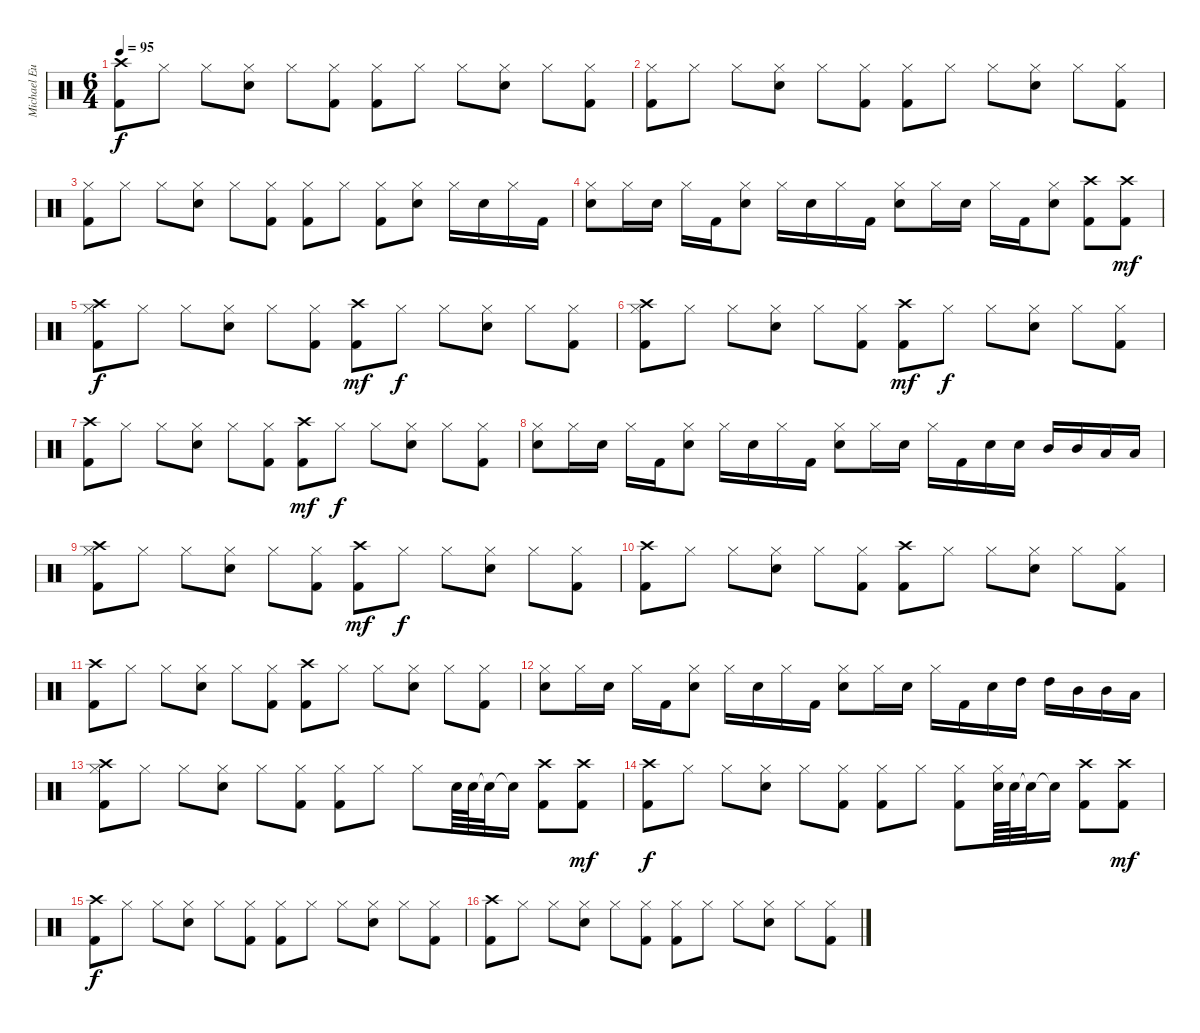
\track ("Michael Eurich" "Michael Eu") {instrument percussion}
\staff {score}
\articulation defaults
\ts (6 4)
\tempo 95
\clef neutral
\ks c
("Kick (hit) 2" "Crash high (hit)").8{dy f} "Hi-Hat (closed)".8 "Hi-Hat (closed)".8 ("Hi-Hat (closed)" "Snare (hit) 2").8 "Hi-Hat (closed)".8 ("Kick (hit) 2" "Hi-Hat (closed)").8 ("Kick (hit) 2" "Hi-Hat (closed)").8 "Hi-Hat (closed)".8 "Hi-Hat (closed)".8 ("Hi-Hat (closed)" "Snare (hit) 2").8 "Hi-Hat (closed)".8 ("Kick (hit) 2" "Hi-Hat (closed)").8 |
("Kick (hit) 2" "Hi-Hat (closed)").8 "Hi-Hat (closed)".8 "Hi-Hat (closed)".8 ("Hi-Hat (closed)" "Snare (hit) 2").8 "Hi-Hat (closed)".8 ("Kick (hit) 2" "Hi-Hat (closed)").8 ("Kick (hit) 2" "Hi-Hat (closed)").8 "Hi-Hat (closed)".8 "Hi-Hat (closed)".8 ("Hi-Hat (closed)" "Snare (hit) 2").8 "Hi-Hat (closed)".8 ("Kick (hit) 2" "Hi-Hat (closed)").8 |
("Kick (hit) 2" "Hi-Hat (closed)").8 "Hi-Hat (closed)".8 "Hi-Hat (closed)".8 ("Hi-Hat (closed)" "Snare (hit) 2").8 "Hi-Hat (closed)".8 ("Kick (hit) 2" "Hi-Hat (closed)").8 ("Kick (hit) 2" "Hi-Hat (closed)").8 "Hi-Hat (closed)".8 ("Kick (hit) 2" "Hi-Hat (closed)").8 ("Hi-Hat (closed)" "Snare (hit) 2").8 "Hi-Hat (closed)".16 "Snare (hit) 2".16 "Hi-Hat (closed)".16 "Kick (hit) 2".16 |
("Hi-Hat (closed)" "Snare (hit) 2").8 "Hi-Hat (closed)".16 "Snare (hit) 2".16 "Hi-Hat (closed)".16 "Kick (hit) 2".16 ("Hi-Hat (closed)" "Snare (hit) 2").8 "Hi-Hat (closed)".16 "Snare (hit) 2".16 "Hi-Hat (closed)".16 "Kick (hit) 2".16 ("Hi-Hat (closed)" "Snare (hit) 2").8 "Hi-Hat (closed)".16 "Snare (hit) 2".16 "Hi-Hat (closed)".16 "Kick (hit) 2".16 ("Hi-Hat (closed)" "Snare (hit) 2").8 ("Kick (hit) 2" "Crash high (hit)").8 ("Kick (hit) 2" "Crash high (hit)").8{dy mf} |
("Kick (hit) 2" "Hi-Hat (closed)" "Crash high (hit)").8{dy f} "Hi-Hat (closed)".8 "Hi-Hat (closed)".8 ("Hi-Hat (closed)" "Snare (hit) 2").8 "Hi-Hat (closed)".8 ("Kick (hit) 2" "Hi-Hat (closed)").8 ("Kick (hit) 2" "Crash high (hit)").8{dy mf} "Hi-Hat (closed)".8{dy f} "Hi-Hat (closed)".8 ("Hi-Hat (closed)" "Snare (hit) 2").8 "Hi-Hat (closed)".8 ("Kick (hit) 2" "Hi-Hat (closed)").8 |
("Kick (hit) 2" "Hi-Hat (closed)" "Crash high (hit)").8 "Hi-Hat (closed)".8 "Hi-Hat (closed)".8 ("Hi-Hat (closed)" "Snare (hit) 2").8 "Hi-Hat (closed)".8 ("Kick (hit) 2" "Hi-Hat (closed)").8 ("Kick (hit) 2" "Crash high (hit)").8{dy mf} "Hi-Hat (closed)".8{dy f} "Hi-Hat (closed)".8 ("Hi-Hat (closed)" "Snare (hit) 2").8 "Hi-Hat (closed)".8 ("Kick (hit) 2" "Hi-Hat (closed)").8 |
("Kick (hit) 2" "Crash high (hit)").8 "Hi-Hat (closed)".8 "Hi-Hat (closed)".8 ("Hi-Hat (closed)" "Snare (hit) 2").8 "Hi-Hat (closed)".8 ("Kick (hit) 2" "Hi-Hat (closed)").8 ("Kick (hit) 2" "Crash high (hit)").8{dy mf} "Hi-Hat (closed)".8{dy f} "Hi-Hat (closed)".8 ("Hi-Hat (closed)" "Snare (hit) 2").8 "Hi-Hat (closed)".8 ("Kick (hit) 2" "Hi-Hat (closed)").8 |
("Hi-Hat (closed)" "Snare (hit) 2").8 "Hi-Hat (closed)".16 "Snare (hit) 2".16 "Hi-Hat (closed)".16 "Kick (hit) 2".16 ("Hi-Hat (closed)" "Snare (hit) 2").8 "Hi-Hat (closed)".16 "Snare (hit) 2".16 "Hi-Hat (closed)".16 "Kick (hit) 2".16 ("Hi-Hat (closed)" "Snare (hit) 2").8 "Hi-Hat (closed)".16 "Snare (hit) 2".16 "Hi-Hat (closed)".16 "Kick (hit) 2".16 "Snare (hit) 2".16 "Snare (hit) 2".16 "Mid Tom (hit)".16 "Mid Tom (hit)".16 "Low Tom (hit)".16 "Low Tom (hit)".16 |
("Kick (hit) 2" "Hi-Hat (closed)" "Crash high (hit)").8 "Hi-Hat (closed)".8 "Hi-Hat (closed)".8 ("Hi-Hat (closed)" "Snare (hit) 2").8 "Hi-Hat (closed)".8 ("Kick (hit) 2" "Hi-Hat (closed)").8 ("Kick (hit) 2" "Crash high (hit)").8{dy mf} "Hi-Hat (closed)".8{dy f} "Hi-Hat (closed)".8 ("Hi-Hat (closed)" "Snare (hit) 2").8 "Hi-Hat (closed)".8 ("Kick (hit) 2" "Hi-Hat (closed)").8 |
("Kick (hit) 2" "Crash high (hit)").8 "Hi-Hat (closed)".8 "Hi-Hat (closed)".8 ("Hi-Hat (closed)" "Snare (hit) 2").8 "Hi-Hat (closed)".8 ("Kick (hit) 2" "Hi-Hat (closed)").8 ("Kick (hit) 2" "Crash high (hit)").8 "Hi-Hat (closed)".8 "Hi-Hat (closed)".8 ("Hi-Hat (closed)" "Snare (hit) 2").8 "Hi-Hat (closed)".8 ("Kick (hit) 2" "Hi-Hat (closed)").8 |
("Kick (hit) 2" "Crash high (hit)").8 "Hi-Hat (closed)".8 "Hi-Hat (closed)".8 ("Hi-Hat (closed)" "Snare (hit) 2").8 "Hi-Hat (closed)".8 ("Kick (hit) 2" "Hi-Hat (closed)").8 ("Kick (hit) 2" "Crash high (hit)").8 "Hi-Hat (closed)".8 "Hi-Hat (closed)".8 ("Hi-Hat (closed)" "Snare (hit) 2").8 "Hi-Hat (closed)".8 ("Kick (hit) 2" "Hi-Hat (closed)").8 |
("Hi-Hat (closed)" "Snare (hit) 2").8 "Hi-Hat (closed)".16 "Snare (hit) 2".16 "Hi-Hat (closed)".16 "Kick (hit) 2".16 ("Hi-Hat (closed)" "Snare (hit) 2").8 "Hi-Hat (closed)".16 "Snare (hit) 2".16 "Hi-Hat (closed)".16 "Kick (hit) 2".16 ("Hi-Hat (closed)" "Snare (hit) 2").8 "Hi-Hat (closed)".16 "Snare (hit) 2".16 "Hi-Hat (closed)".16 "Kick (hit) 2".16 "Snare (hit) 2".16 "High Tom (hit)".16 "High Tom (hit)".16 "Mid Tom (hit)".16 "Mid Tom (hit)".16 "Low Tom (hit)".16 |
("Kick (hit) 2" "Hi-Hat (closed)" "Crash high (hit)").8 "Hi-Hat (closed)".8 "Hi-Hat (closed)".8 ("Hi-Hat (closed)" "Snare (hit) 2").8 "Hi-Hat (closed)".8 ("Kick (hit) 2" "Hi-Hat (closed)").8 ("Kick (hit) 2" "Hi-Hat (closed)").8 "Hi-Hat (closed)".8 "Hi-Hat (closed)".8 "Snare (hit) 2".64 "Snare (hit) 2".64 "Snare (hit)"{t}.32 "Snare (hit)"{t}.16 ("Kick (hit) 2" "Crash high (hit)").8 ("Kick (hit) 2" "Crash high (hit)").8{dy mf} |
("Kick (hit) 2" "Crash high (hit)").8{dy f} "Hi-Hat (closed)".8 "Hi-Hat (closed)".8 ("Hi-Hat (closed)" "Snare (hit) 2").8 "Hi-Hat (closed)".8 ("Kick (hit) 2" "Hi-Hat (closed)").8 ("Kick (hit) 2" "Hi-Hat (closed)").8 "Hi-Hat (closed)".8 ("Kick (hit) 2" "Hi-Hat (closed)").8 ("Hi-Hat (closed)" "Snare (hit) 2").64 "Snare (hit) 2".64 "Snare (hit)"{t}.32 "Snare (hit)"{t}.16 ("Kick (hit) 2" "Crash high (hit)").8 ("Kick (hit) 2" "Crash high (hit)").8{dy mf} |
("Kick (hit) 2" "Crash high (hit)").8{dy f} "Hi-Hat (closed)".8 "Hi-Hat (closed)".8 ("Hi-Hat (closed)" "Snare (hit) 2").8 "Hi-Hat (closed)".8 ("Kick (hit) 2" "Hi-Hat (closed)").8 ("Kick (hit) 2" "Hi-Hat (closed)").8 "Hi-Hat (closed)".8 "Hi-Hat (closed)".8 ("Hi-Hat (closed)" "Snare (hit) 2").8 "Hi-Hat (closed)".8 ("Kick (hit) 2" "Hi-Hat (closed)").8 |
("Kick (hit) 2" "Crash high (hit)").8 "Hi-Hat (closed)".8 "Hi-Hat (closed)".8 ("Hi-Hat (closed)" "Snare (hit) 2").8 "Hi-Hat (closed)".8 ("Kick (hit) 2" "Hi-Hat (closed)").8 ("Kick (hit) 2" "Hi-Hat (closed)").8 "Hi-Hat (closed)".8 "Hi-Hat (closed)".8 ("Hi-Hat (closed)" "Snare (hit) 2").8 "Hi-Hat (closed)".8 ("Kick (hit) 2" "Hi-Hat (closed)").8
